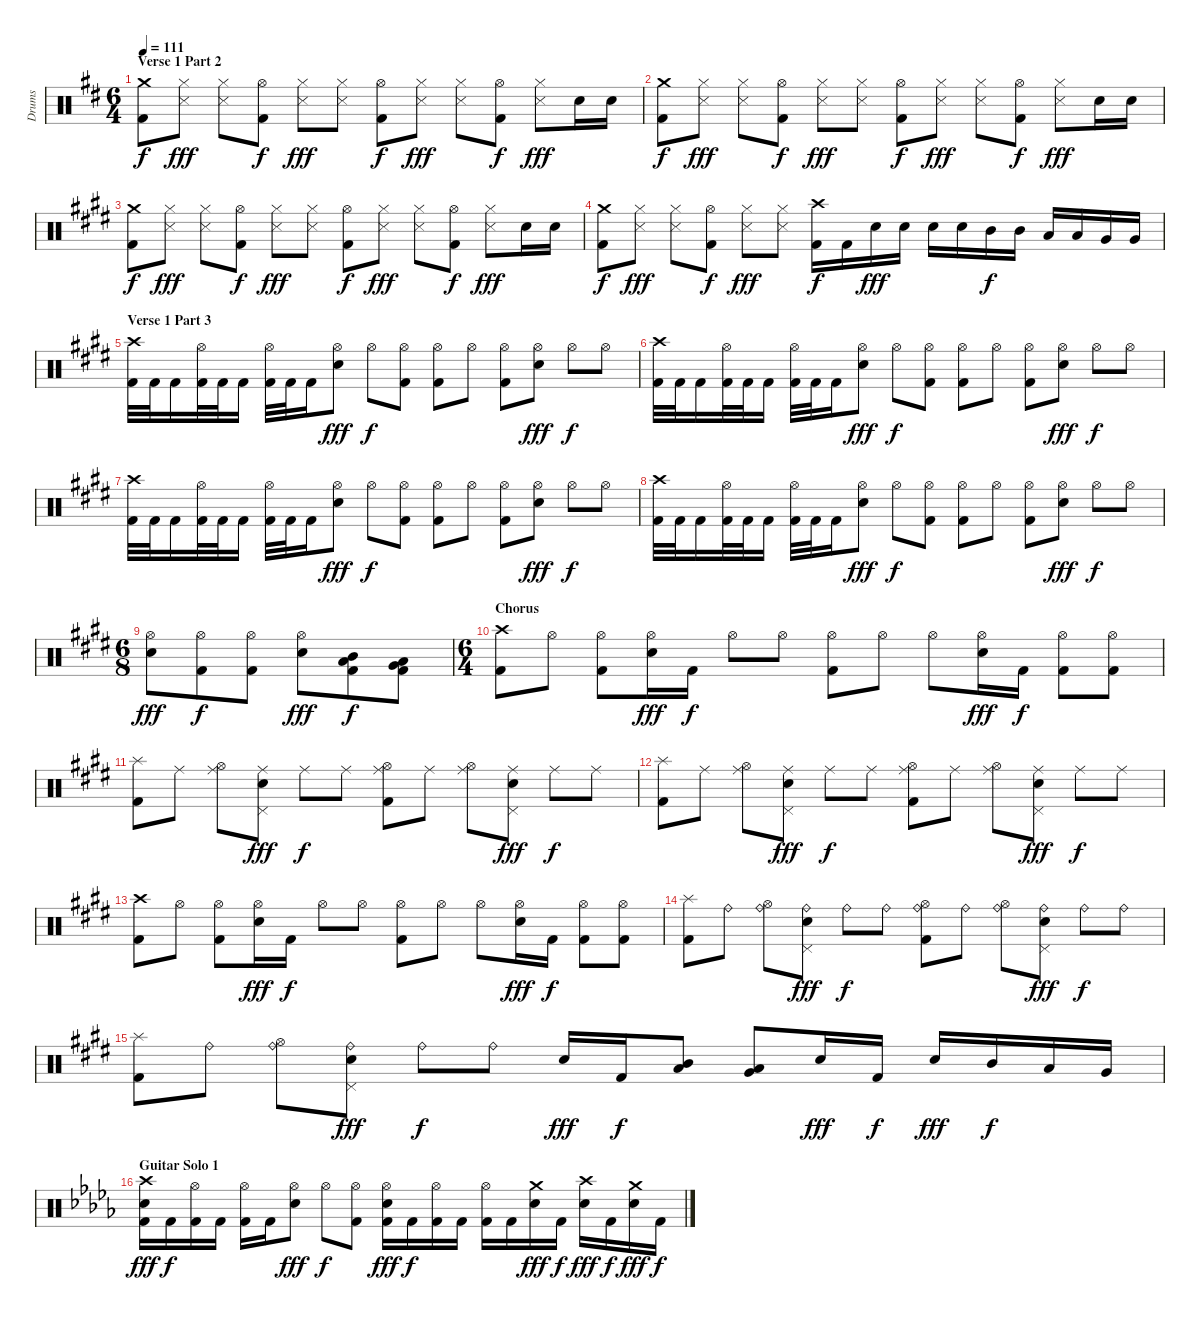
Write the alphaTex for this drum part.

\track ("Drums" "Drums") {instrument percussion}
\staff {score}
\articulation defaults
\ts (6 4)
\section ("" "Verse 1 Part 2")
\tempo 111
\clef neutral
\ks bminor
("Crash medium (hit)" "Kick (hit) 2").8{dy f} ("Hi-Hat (closed)" "Snare (side stick) 3").8{dy fff} ("Hi-Hat (closed)" "Snare (side stick) 3").8 ("Hi-Hat (open)" "Kick (hit) 2").8{dy f} ("Hi-Hat (closed)" "Snare (side stick) 3").8{dy fff} ("Hi-Hat (closed)" "Snare (side stick) 3").8 ("Hi-Hat (open)" "Kick (hit) 2").8{dy f} ("Hi-Hat (closed)" "Snare (side stick) 3").8{dy fff} ("Hi-Hat (closed)" "Snare (side stick) 3").8 ("Hi-Hat (open)" "Kick (hit) 2").8{dy f} ("Hi-Hat (closed)" "Snare (side stick) 3").8{dy fff} "Snare (hit) 2".16 "Snare (hit) 2".16 |
("Crash medium (hit)" "Kick (hit) 2").8{dy f} ("Hi-Hat (closed)" "Snare (side stick) 3").8{dy fff} ("Hi-Hat (closed)" "Snare (side stick) 3").8 ("Hi-Hat (open)" "Kick (hit) 2").8{dy f} ("Hi-Hat (closed)" "Snare (side stick) 3").8{dy fff} ("Hi-Hat (closed)" "Snare (side stick) 3").8 ("Hi-Hat (open)" "Kick (hit) 2").8{dy f} ("Hi-Hat (closed)" "Snare (side stick) 3").8{dy fff} ("Hi-Hat (closed)" "Snare (side stick) 3").8 ("Hi-Hat (open)" "Kick (hit) 2").8{dy f} ("Hi-Hat (closed)" "Snare (side stick) 3").8{dy fff} "Snare (hit) 2".16 "Snare (hit) 2".16 |
\ks c#minor
("Crash medium (hit)" "Kick (hit) 2").8{dy f} ("Hi-Hat (closed)" "Snare (side stick) 3").8{dy fff} ("Hi-Hat (closed)" "Snare (side stick) 3").8 ("Hi-Hat (open)" "Kick (hit) 2").8{dy f} ("Hi-Hat (closed)" "Snare (side stick) 3").8{dy fff} ("Hi-Hat (closed)" "Snare (side stick) 3").8 ("Hi-Hat (open)" "Kick (hit) 2").8{dy f} ("Hi-Hat (closed)" "Snare (side stick) 3").8{dy fff} ("Hi-Hat (closed)" "Snare (side stick) 3").8 ("Hi-Hat (open)" "Kick (hit) 2").8{dy f} ("Hi-Hat (closed)" "Snare (side stick) 3").8{dy fff} "Snare (hit) 2".16 "Snare (hit) 2".16 |
("Crash medium (hit)" "Kick (hit) 2").8{dy f} ("Hi-Hat (closed)" "Snare (side stick) 3").8{dy fff} ("Hi-Hat (closed)" "Snare (side stick) 3").8 ("Hi-Hat (open)" "Kick (hit) 2").8{dy f} ("Hi-Hat (closed)" "Snare (side stick) 3").8{dy fff} ("Hi-Hat (closed)" "Snare (side stick) 3").8 ("Crash high (hit)" "Kick (hit) 2").16{dy f} "Kick (hit) 2".16 "Snare (hit) 2".16{dy fff} "Snare (hit) 2".16 "Snare (hit) 2".16 "Snare (hit) 2".16 "Mid Tom (hit)".16{dy f} "Mid Tom (hit)".16 "Low Tom (hit)".16 "Low Tom (hit)".16 "Very Low Tom (hit)".16 "Very Low Tom (hit)".16 |
\section ("" "Verse 1 Part 3")
("Crash high (hit)" "Kick (hit) 2").32 "Kick (hit) 2".32 "Kick (hit) 2".16 ("Hi-Hat (open)" "Kick (hit) 2").32 "Kick (hit) 2".32 "Kick (hit) 2".16 ("Hi-Hat (open)" "Kick (hit) 2").32 "Kick (hit) 2".32 "Kick (hit) 2".16 ("Hi-Hat (open)" "Snare (hit) 2").8{dy fff} "Hi-Hat (open)".8{dy f} ("Hi-Hat (open)" "Kick (hit) 2").8 ("Hi-Hat (open)" "Kick (hit) 2").8 "Hi-Hat (open)".8 ("Hi-Hat (open)" "Kick (hit) 2").8 ("Hi-Hat (open)" "Snare (hit) 2").8{dy fff} "Hi-Hat (open)".8{dy f} "Hi-Hat (open)".8 |
("Crash high (hit)" "Kick (hit) 2").32 "Kick (hit) 2".32 "Kick (hit) 2".16 ("Hi-Hat (open)" "Kick (hit) 2").32 "Kick (hit) 2".32 "Kick (hit) 2".16 ("Hi-Hat (open)" "Kick (hit) 2").32 "Kick (hit) 2".32 "Kick (hit) 2".16 ("Hi-Hat (open)" "Snare (hit) 2").8{dy fff} "Hi-Hat (open)".8{dy f} ("Hi-Hat (open)" "Kick (hit) 2").8 ("Hi-Hat (open)" "Kick (hit) 2").8 "Hi-Hat (open)".8 ("Hi-Hat (open)" "Kick (hit) 2").8 ("Hi-Hat (open)" "Snare (hit) 2").8{dy fff} "Hi-Hat (open)".8{dy f} "Hi-Hat (open)".8 |
("Crash high (hit)" "Kick (hit) 2").32 "Kick (hit) 2".32 "Kick (hit) 2".16 ("Hi-Hat (open)" "Kick (hit) 2").32 "Kick (hit) 2".32 "Kick (hit) 2".16 ("Hi-Hat (open)" "Kick (hit) 2").32 "Kick (hit) 2".32 "Kick (hit) 2".16 ("Hi-Hat (open)" "Snare (hit) 2").8{dy fff} "Hi-Hat (open)".8{dy f} ("Hi-Hat (open)" "Kick (hit) 2").8 ("Hi-Hat (open)" "Kick (hit) 2").8 "Hi-Hat (open)".8 ("Hi-Hat (open)" "Kick (hit) 2").8 ("Hi-Hat (open)" "Snare (hit) 2").8{dy fff} "Hi-Hat (open)".8{dy f} "Hi-Hat (open)".8 |
("Crash high (hit)" "Kick (hit) 2").32 "Kick (hit) 2".32 "Kick (hit) 2".16 ("Hi-Hat (open)" "Kick (hit) 2").32 "Kick (hit) 2".32 "Kick (hit) 2".16 ("Hi-Hat (open)" "Kick (hit) 2").32 "Kick (hit) 2".32 "Kick (hit) 2".16 ("Hi-Hat (open)" "Snare (hit) 2").8{dy fff} "Hi-Hat (open)".8{dy f} ("Hi-Hat (open)" "Kick (hit) 2").8 ("Hi-Hat (open)" "Kick (hit) 2").8 "Hi-Hat (open)".8 ("Hi-Hat (open)" "Kick (hit) 2").8 ("Hi-Hat (open)" "Snare (hit) 2").8{dy fff} "Hi-Hat (open)".8{dy f} "Hi-Hat (open)".8 |
\ts (6 8)
("Hi-Hat (open)" "Snare (hit) 2").8{dy fff} ("Hi-Hat (open)" "Kick (hit) 2").8{dy f} ("Hi-Hat (open)" "Kick (hit) 2").8 ("Hi-Hat (open)" "Snare (hit) 2").8{dy fff} ("Mid Tom (hit)" "Low Tom (hit)" "Kick (hit) 2").8{dy f} ("Low Tom (hit)" "Very Low Tom (hit)" "Kick (hit) 2").8 |
\ts (6 4)
\section ("" "Chorus")
("Crash high (hit)" "Kick (hit) 2").8 "Hi-Hat (open)".8 ("Hi-Hat (open)" "Kick (hit) 2").8 ("Hi-Hat (open)" "Snare (hit) 2").16{dy fff} "Kick (hit) 2".16{dy f} "Hi-Hat (open)".8 "Hi-Hat (open)".8 ("Hi-Hat (open)" "Kick (hit) 2").8 "Hi-Hat (open)".8 "Hi-Hat (open)".8 ("Hi-Hat (open)" "Snare (hit) 2").16{dy fff} "Kick (hit) 2".16{dy f} ("Hi-Hat (open)" "Kick (hit) 2").8 ("Hi-Hat (open)" "Kick (hit) 2").8 |
("Splash (hit)" "Kick (hit) 2").8 "Ride (middle)".8 ("Hi-Hat (open)" "Ride (middle)").8 ("Pedal Hi-Hat (hit)" "Ride (middle)" "Snare (hit) 2").8{dy fff} "Ride (middle)".8{dy f} "Ride (middle)".8 ("Hi-Hat (open)" "Ride (middle)" "Kick (hit) 2").8 "Ride (middle)".8 ("Hi-Hat (open)" "Ride (middle)").8 ("Pedal Hi-Hat (hit)" "Ride (middle)" "Snare (hit) 2").8{dy fff} "Ride (middle)".8{dy f} "Ride (middle)".8 |
("Splash (hit)" "Kick (hit) 2").8 "Ride (middle)".8 ("Hi-Hat (open)" "Ride (middle)").8 ("Pedal Hi-Hat (hit)" "Ride (middle)" "Snare (hit) 2").8{dy fff} "Ride (middle)".8{dy f} "Ride (middle)".8 ("Hi-Hat (open)" "Ride (middle)" "Kick (hit) 2").8 "Ride (middle)".8 ("Hi-Hat (open)" "Ride (middle)").8 ("Pedal Hi-Hat (hit)" "Ride (middle)" "Snare (hit) 2").8{dy fff} "Ride (middle)".8{dy f} "Ride (middle)".8 |
("Crash high (hit)" "Kick (hit) 2").8 "Hi-Hat (open)".8 ("Hi-Hat (open)" "Kick (hit) 2").8 ("Hi-Hat (open)" "Snare (hit) 2").16{dy fff} "Kick (hit) 2".16{dy f} "Hi-Hat (open)".8 "Hi-Hat (open)".8 ("Hi-Hat (open)" "Kick (hit) 2").8 "Hi-Hat (open)".8 "Hi-Hat (open)".8 ("Hi-Hat (open)" "Snare (hit) 2").16{dy fff} "Kick (hit) 2".16{dy f} ("Hi-Hat (open)" "Kick (hit) 2").8 ("Hi-Hat (open)" "Kick (hit) 2").8 |
("Splash (hit)" "Kick (hit) 2").8 "Ride (bell)".8 ("Hi-Hat (open)" "Ride (bell)").8 ("Pedal Hi-Hat (hit)" "Ride (bell)" "Snare (hit) 2").8{dy fff} "Ride (bell)".8{dy f} "Ride (bell)".8 ("Hi-Hat (open)" "Ride (bell)" "Kick (hit) 2").8 "Ride (bell)".8 ("Hi-Hat (open)" "Ride (bell)").8 ("Pedal Hi-Hat (hit)" "Ride (bell)" "Snare (hit) 2").8{dy fff} "Ride (bell)".8{dy f} "Ride (bell)".8 |
("Splash (hit)" "Kick (hit) 2").8 "Ride (bell)".8 ("Hi-Hat (open)" "Ride (bell)").8 ("Pedal Hi-Hat (hit)" "Ride (bell)" "Snare (hit) 2").8{dy fff} "Ride (bell)".8{dy f} "Ride (bell)".8 "Snare (hit) 2".16{dy fff} "Kick (hit) 2".16{dy f} ("Mid Tom (hit)" "Low Tom (hit)").8 ("Low Tom (hit)" "Very Low Tom (hit)").8 "Snare (hit) 2".16{dy fff} "Kick (hit) 2".16{dy f} "Snare (hit) 2".16{dy fff} "Mid Tom (hit)".16{dy f} "Low Tom (hit)".16 "Very Low Tom (hit)".16 |
\section ("" "Guitar Solo 1")
\ks db
("Crash high (hit)" "Snare (hit) 2" "Kick (hit) 2").16{dy fff} "Kick (hit) 2".16{dy f} ("Hi-Hat (open)" "Kick (hit) 2").16 "Kick (hit) 2".16 ("Hi-Hat (open)" "Kick (hit) 2").16 "Kick (hit) 2".16 ("Hi-Hat (open)" "Snare (hit) 2").8{dy fff} "Hi-Hat (open)".8{dy f} ("Hi-Hat (open)" "Kick (hit) 2").8 ("Hi-Hat (open)" "Snare (hit) 2" "Kick (hit) 2").16{dy fff} "Kick (hit) 2".16{dy f} ("Hi-Hat (open)" "Kick (hit) 2").16 "Kick (hit) 2".16 ("Hi-Hat (open)" "Kick (hit) 2").16 "Kick (hit) 2".16 ("Crash medium (hit)" "Snare (hit) 2").16{dy fff} "Kick (hit) 2".16{dy f} ("Crash high (hit)" "Snare (hit) 2").16{dy fff} "Kick (hit) 2".16{dy f} ("Crash medium (hit)" "Snare (hit) 2").16{dy fff} "Kick (hit) 2".16{dy f}
